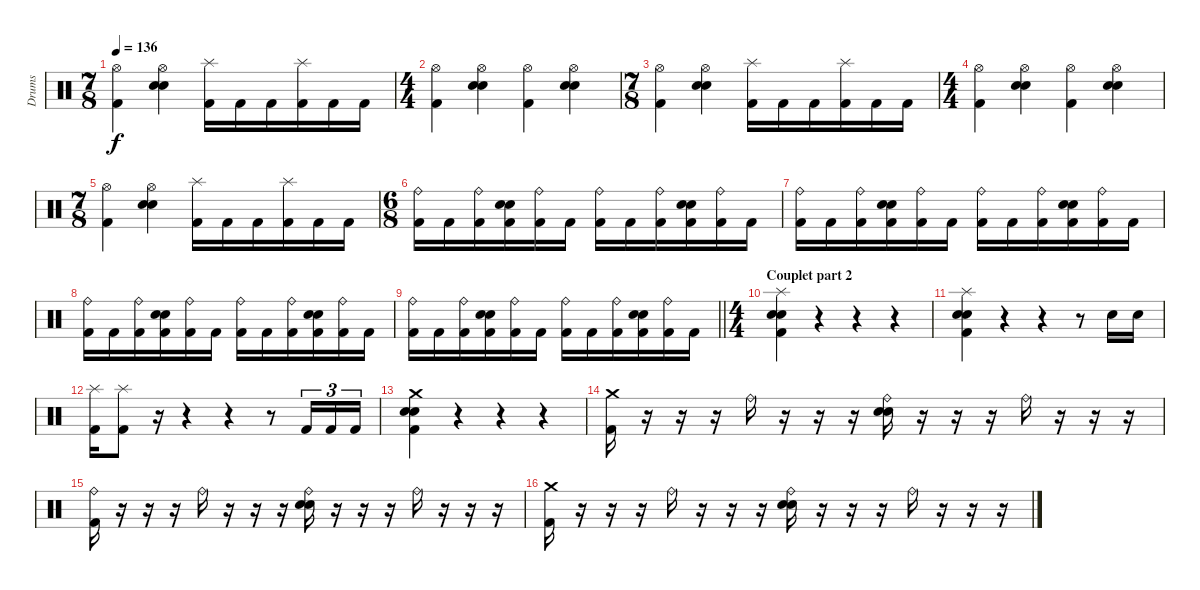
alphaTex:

\track ("Drums" "Drums") {instrument percussion}
\staff {score}
\articulation defaults
\ts (7 8)
\tempo 136
\clef neutral
\ks c
("Hi-Hat (open)" "Kick (hit) 2").4{dy f} ("Hi-Hat (open)" "Electric Snare (hit)" "Snare (hit) 2").4 ("Splash (hit)" "Kick (hit) 2").16 "Kick (hit) 2".16 "Kick (hit) 2".16 ("Splash (hit)" "Kick (hit) 2").16 "Kick (hit) 2".16 "Kick (hit) 2".16 |
\ts (4 4)
("Hi-Hat (open)" "Kick (hit) 2").4 ("Hi-Hat (open)" "Electric Snare (hit)" "Snare (hit) 2").4 ("Hi-Hat (open)" "Kick (hit) 2").4 ("Hi-Hat (open)" "Electric Snare (hit)" "Snare (hit) 2").4 |
\ts (7 8)
("Hi-Hat (open)" "Kick (hit) 2").4 ("Hi-Hat (open)" "Electric Snare (hit)" "Snare (hit) 2").4 ("Splash (hit)" "Kick (hit) 2").16 "Kick (hit) 2".16 "Kick (hit) 2".16 ("Splash (hit)" "Kick (hit) 2").16 "Kick (hit) 2".16 "Kick (hit) 2".16 |
\ts (4 4)
("Hi-Hat (open)" "Kick (hit) 2").4 ("Hi-Hat (open)" "Electric Snare (hit)" "Snare (hit) 2").4 ("Hi-Hat (open)" "Kick (hit) 2").4 ("Hi-Hat (open)" "Electric Snare (hit)" "Snare (hit) 2").4 |
\ts (7 8)
("Hi-Hat (open)" "Kick (hit) 2").4 ("Hi-Hat (open)" "Electric Snare (hit)" "Snare (hit) 2").4 ("Splash (hit)" "Kick (hit) 2").16 "Kick (hit) 2".16 "Kick (hit) 2".16 ("Splash (hit)" "Kick (hit) 2").16 "Kick (hit) 2".16 "Kick (hit) 2".16 |
\ts (6 8)
("Ride (bell)" "Kick (hit) 2").16 "Kick (hit) 2".16 ("Ride (bell)" "Kick (hit) 2").16 ("Electric Snare (hit)" "Snare (hit) 2" "Kick (hit) 2").16 ("Ride (bell)" "Kick (hit) 2").16 "Kick (hit) 2".16 ("Ride (bell)" "Kick (hit) 2").16 "Kick (hit) 2".16 ("Ride (bell)" "Kick (hit) 2").16 ("Electric Snare (hit)" "Snare (hit) 2" "Kick (hit) 2").16 ("Ride (bell)" "Kick (hit) 2").16 "Kick (hit) 2".16 |
("Ride (bell)" "Kick (hit) 2").16 "Kick (hit) 2".16 ("Ride (bell)" "Kick (hit) 2").16 ("Electric Snare (hit)" "Snare (hit) 2" "Kick (hit) 2").16 ("Ride (bell)" "Kick (hit) 2").16 "Kick (hit) 2".16 ("Ride (bell)" "Kick (hit) 2").16 "Kick (hit) 2".16 ("Ride (bell)" "Kick (hit) 2").16 ("Electric Snare (hit)" "Snare (hit) 2" "Kick (hit) 2").16 ("Ride (bell)" "Kick (hit) 2").16 "Kick (hit) 2".16 |
("Ride (bell)" "Kick (hit) 2").16 "Kick (hit) 2".16 ("Ride (bell)" "Kick (hit) 2").16 ("Electric Snare (hit)" "Snare (hit) 2" "Kick (hit) 2").16 ("Ride (bell)" "Kick (hit) 2").16 "Kick (hit) 2".16 ("Ride (bell)" "Kick (hit) 2").16 "Kick (hit) 2".16 ("Ride (bell)" "Kick (hit) 2").16 ("Electric Snare (hit)" "Snare (hit) 2" "Kick (hit) 2").16 ("Ride (bell)" "Kick (hit) 2").16 "Kick (hit) 2".16 |
\barLineRight lightlight
("Ride (bell)" "Kick (hit) 2").16 "Kick (hit) 2".16 ("Ride (bell)" "Kick (hit) 2").16 ("Electric Snare (hit)" "Snare (hit) 2" "Kick (hit) 2").16 ("Ride (bell)" "Kick (hit) 2").16 "Kick (hit) 2".16 ("Ride (bell)" "Kick (hit) 2").16 "Kick (hit) 2".16 ("Ride (bell)" "Kick (hit) 2").16 ("Electric Snare (hit)" "Snare (hit) 2" "Kick (hit) 2").16 ("Ride (bell)" "Kick (hit) 2").16 "Kick (hit) 2".16 |
\ts (4 4)
\section ("" "Couplet part 2")
("Splash (hit)" "Electric Snare (hit)" "Snare (hit) 2" "Kick (hit) 2").4 r.4 r.4 r.4 |
("Splash (hit)" "Electric Snare (hit)" "Snare (hit) 2" "Kick (hit) 2").4 r.4 r.4 r.8 "Snare (hit) 2".16 "Snare (hit) 2".16 |
("Splash (hit)" "Kick (hit) 2").16 ("Splash (hit)" "Kick (hit) 2").8 r.16 r.4 r.4 r.8 "Kick (hit) 2".16{tu (3 2)} "Kick (hit) 2".16{tu (3 2)} "Kick (hit) 2".16{tu (3 2)} |
("Crash medium (hit)" "Electric Snare (hit)" "Snare (hit) 2" "Kick (hit) 2").4 r.4 r.4 r.4 |
("Crash medium (hit)" "Kick (hit) 2").16 r.16 r.16 r.16 "Ride (bell)".16 r.16 r.16 r.16 ("Ride (bell)" "Electric Snare (hit)" "Snare (hit) 2").16 r.16 r.16 r.16 "Ride (bell)".16 r.16 r.16 r.16 |
("Ride (bell)" "Kick (hit) 2").16 r.16 r.16 r.16 "Ride (bell)".16 r.16 r.16 r.16 ("Ride (bell)" "Electric Snare (hit)" "Snare (hit) 2").16 r.16 r.16 r.16 "Ride (bell)".16 r.16 r.16 r.16 |
("Crash medium (hit)" "Kick (hit) 2").16 r.16 r.16 r.16 "Ride (bell)".16 r.16 r.16 r.16 ("Ride (bell)" "Electric Snare (hit)" "Snare (hit) 2").16 r.16 r.16 r.16 "Ride (bell)".16 r.16 r.16 r.16
